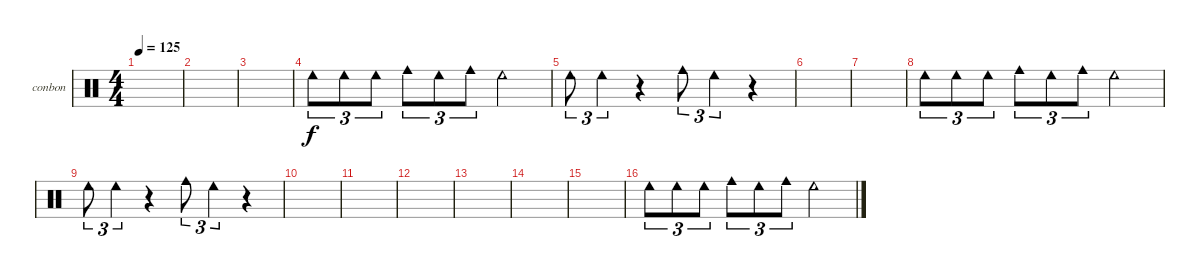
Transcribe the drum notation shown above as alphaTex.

\defaultSystemsLayout 4
\bracketExtendMode groupsimilarinstruments
\firstSystemTrackNameOrientation horizontal
\otherSystemsTrackNameOrientation horizontal
\track ("Bongos N Congas" "conbon") {instrument percussion}
\staff {score}
\articulation defaults
\ts (4 4)
\tempo 125
\clef neutral
\scale
0.333333
\ks c
|
\scale
0.333333 |
\scale
0.333333 |
\scale
0.333333 "Cowbell low (hit)".8{tu (3 2)} "Cowbell low (hit)".8{tu (3 2)} "Cowbell low (hit)".8{tu (3 2)} "Cowbell medium (hit)".8{tu (3 2)} "Cowbell low (hit)".8{tu (3 2)} "Cowbell medium (hit)".8{tu (3 2)} "Cowbell low (hit)".2 |
\scale
0.333333 "Cowbell low (hit)".8{tu (3 2)} "Cowbell low (hit)".4{tu (3 2)} r.4 "Cowbell medium (hit)".8{tu (3 2)} "Cowbell low (hit)".4{tu (3 2)} r.4 |
\scale
0.333333 |
\scale
0.333333 |
\scale
0.333333 "Cowbell low (hit)".8{tu (3 2)} "Cowbell low (hit)".8{tu (3 2)} "Cowbell low (hit)".8{tu (3 2)} "Cowbell medium (hit)".8{tu (3 2)} "Cowbell low (hit)".8{tu (3 2)} "Cowbell medium (hit)".8{tu (3 2)} "Cowbell low (hit)".2 |
\scale
0.333333 "Cowbell low (hit)".8{tu (3 2)} "Cowbell low (hit)".4{tu (3 2)} r.4 "Cowbell medium (hit)".8{tu (3 2)} "Cowbell low (hit)".4{tu (3 2)} r.4 |
\scale
0.333333 |
\scale
0.333333 |
\scale
0.333333 |
\scale
0.333333 |
\scale
0.333333 |
\scale
0.333333 |
\scale
0.333333 "Cowbell low (hit)".8{tu (3 2)} "Cowbell low (hit)".8{tu (3 2)} "Cowbell low (hit)".8{tu (3 2)} "Cowbell medium (hit)".8{tu (3 2)} "Cowbell low (hit)".8{tu (3 2)} "Cowbell medium (hit)".8{tu (3 2)} "Cowbell low (hit)".2
